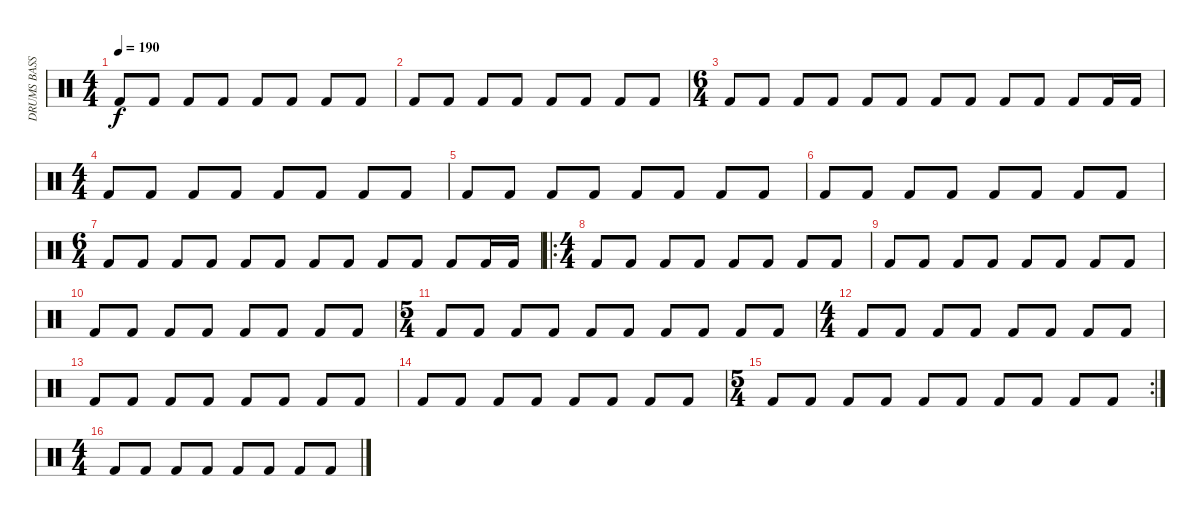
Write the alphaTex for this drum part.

\track ("DRUMS BASS" "DRUMS BASS") {instrument percussion}
\staff {score}
\articulation defaults
\ts (4 4)
\tempo 190
\clef neutral
\ks c "Kick (hit) 2".8{dy f} "Kick (hit) 2".8 "Kick (hit) 2".8 "Kick (hit) 2".8 "Kick (hit) 2".8 "Kick (hit) 2".8 "Kick (hit) 2".8 "Kick (hit) 2".8
|
"Kick (hit) 2".8 "Kick (hit) 2".8 "Kick (hit) 2".8 "Kick (hit) 2".8 "Kick (hit) 2".8 "Kick (hit) 2".8 "Kick (hit) 2".8 "Kick (hit) 2".8 |
\ts (6 4)
"Kick (hit) 2".8 "Kick (hit) 2".8 "Kick (hit) 2".8 "Kick (hit) 2".8 "Kick (hit) 2".8 "Kick (hit) 2".8 "Kick (hit) 2".8 "Kick (hit) 2".8 "Kick (hit) 2".8 "Kick (hit) 2".8 "Kick (hit) 2".8 "Kick (hit) 2".16 "Kick (hit) 2".16 |
\ts (4 4)
"Kick (hit) 2".8 "Kick (hit) 2".8 "Kick (hit) 2".8 "Kick (hit) 2".8 "Kick (hit) 2".8 "Kick (hit) 2".8 "Kick (hit) 2".8 "Kick (hit) 2".8 |
"Kick (hit) 2".8 "Kick (hit) 2".8 "Kick (hit) 2".8 "Kick (hit) 2".8 "Kick (hit) 2".8 "Kick (hit) 2".8 "Kick (hit) 2".8 "Kick (hit) 2".8 |
"Kick (hit) 2".8 "Kick (hit) 2".8 "Kick (hit) 2".8 "Kick (hit) 2".8 "Kick (hit) 2".8 "Kick (hit) 2".8 "Kick (hit) 2".8 "Kick (hit) 2".8 |
\ts (6 4)
"Kick (hit) 2".8 "Kick (hit) 2".8 "Kick (hit) 2".8 "Kick (hit) 2".8 "Kick (hit) 2".8 "Kick (hit) 2".8 "Kick (hit) 2".8 "Kick (hit) 2".8 "Kick (hit) 2".8 "Kick (hit) 2".8 "Kick (hit) 2".8 "Kick (hit) 2".16 "Kick (hit) 2".16 |
\ro
\ts (4 4)
"Kick (hit) 2".8 "Kick (hit) 2".8 "Kick (hit) 2".8 "Kick (hit) 2".8 "Kick (hit) 2".8 "Kick (hit) 2".8 "Kick (hit) 2".8 "Kick (hit) 2".8 |
"Kick (hit) 2".8 "Kick (hit) 2".8 "Kick (hit) 2".8 "Kick (hit) 2".8 "Kick (hit) 2".8 "Kick (hit) 2".8 "Kick (hit) 2".8 "Kick (hit) 2".8 |
"Kick (hit) 2".8 "Kick (hit) 2".8 "Kick (hit) 2".8 "Kick (hit) 2".8 "Kick (hit) 2".8 "Kick (hit) 2".8 "Kick (hit) 2".8 "Kick (hit) 2".8 |
\ts (5 4)
"Kick (hit) 2".8 "Kick (hit) 2".8 "Kick (hit) 2".8 "Kick (hit) 2".8 "Kick (hit) 2".8 "Kick (hit) 2".8 "Kick (hit) 2".8 "Kick (hit) 2".8 "Kick (hit) 2".8 "Kick (hit) 2".8 |
\ts (4 4)
"Kick (hit) 2".8 "Kick (hit) 2".8 "Kick (hit) 2".8 "Kick (hit) 2".8 "Kick (hit) 2".8 "Kick (hit) 2".8 "Kick (hit) 2".8 "Kick (hit) 2".8 |
"Kick (hit) 2".8 "Kick (hit) 2".8 "Kick (hit) 2".8 "Kick (hit) 2".8 "Kick (hit) 2".8 "Kick (hit) 2".8 "Kick (hit) 2".8 "Kick (hit) 2".8 |
"Kick (hit) 2".8 "Kick (hit) 2".8 "Kick (hit) 2".8 "Kick (hit) 2".8 "Kick (hit) 2".8 "Kick (hit) 2".8 "Kick (hit) 2".8 "Kick (hit) 2".8 |
\rc 2
\ts (5 4)
"Kick (hit) 2".8 "Kick (hit) 2".8 "Kick (hit) 2".8 "Kick (hit) 2".8 "Kick (hit) 2".8 "Kick (hit) 2".8 "Kick (hit) 2".8 "Kick (hit) 2".8 "Kick (hit) 2".8 "Kick (hit) 2".8 |
\ts (4 4)
"Kick (hit) 2".8 "Kick (hit) 2".8 "Kick (hit) 2".8 "Kick (hit) 2".8 "Kick (hit) 2".8 "Kick (hit) 2".8 "Kick (hit) 2".8 "Kick (hit) 2".8
